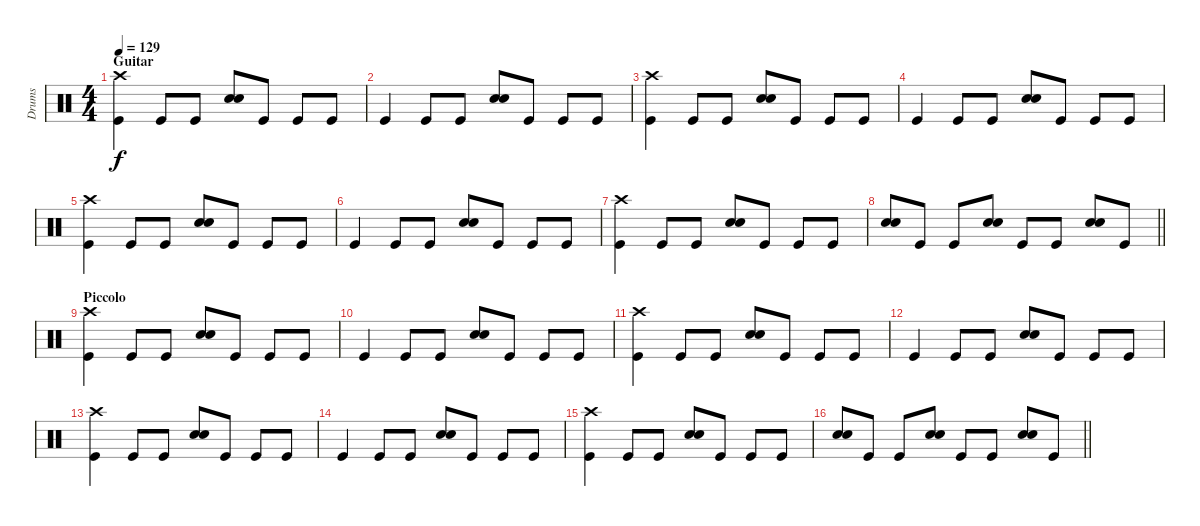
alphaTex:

\track ("Drums" "Drums") {instrument percussion}
\staff {score}
\articulation defaults
\ts (4 4)
\section ("" "Guitar")
\tempo 129
\clef neutral
\ks c
("Crash high (hit)" "Kick (hit)").4{dy f} "Kick (hit)".8 "Kick (hit)".8 ("Snare (hit) 2" "Electric Snare (hit)").8 "Kick (hit)".8 "Kick (hit)".8 "Kick (hit)".8 |
"Kick (hit)".4 "Kick (hit)".8 "Kick (hit)".8 ("Snare (hit) 2" "Electric Snare (hit)").8 "Kick (hit)".8 "Kick (hit)".8 "Kick (hit)".8 |
("Crash high (hit)" "Kick (hit)").4 "Kick (hit)".8 "Kick (hit)".8 ("Snare (hit) 2" "Electric Snare (hit)").8 "Kick (hit)".8 "Kick (hit)".8 "Kick (hit)".8 |
"Kick (hit)".4 "Kick (hit)".8 "Kick (hit)".8 ("Snare (hit) 2" "Electric Snare (hit)").8 "Kick (hit)".8 "Kick (hit)".8 "Kick (hit)".8 |
("Crash high (hit)" "Kick (hit)").4 "Kick (hit)".8 "Kick (hit)".8 ("Snare (hit) 2" "Electric Snare (hit)").8 "Kick (hit)".8 "Kick (hit)".8 "Kick (hit)".8 |
"Kick (hit)".4 "Kick (hit)".8 "Kick (hit)".8 ("Snare (hit) 2" "Electric Snare (hit)").8 "Kick (hit)".8 "Kick (hit)".8 "Kick (hit)".8 |
("Crash high (hit)" "Kick (hit)").4 "Kick (hit)".8 "Kick (hit)".8 ("Snare (hit) 2" "Electric Snare (hit)").8 "Kick (hit)".8 "Kick (hit)".8 "Kick (hit)".8 |
\barLineRight lightlight
("Snare (hit) 2" "Electric Snare (hit)").8 "Kick (hit)".8 "Kick (hit)".8 ("Snare (hit) 2" "Electric Snare (hit)").8 "Kick (hit)".8 "Kick (hit)".8 ("Snare (hit) 2" "Electric Snare (hit)").8 "Kick (hit)".8 |
\section ("" "Piccolo")
("Crash high (hit)" "Kick (hit)").4 "Kick (hit)".8 "Kick (hit)".8 ("Snare (hit) 2" "Electric Snare (hit)").8 "Kick (hit)".8 "Kick (hit)".8 "Kick (hit)".8 |
"Kick (hit)".4 "Kick (hit)".8 "Kick (hit)".8 ("Snare (hit) 2" "Electric Snare (hit)").8 "Kick (hit)".8 "Kick (hit)".8 "Kick (hit)".8 |
("Crash high (hit)" "Kick (hit)").4 "Kick (hit)".8 "Kick (hit)".8 ("Snare (hit) 2" "Electric Snare (hit)").8 "Kick (hit)".8 "Kick (hit)".8 "Kick (hit)".8 |
"Kick (hit)".4 "Kick (hit)".8 "Kick (hit)".8 ("Snare (hit) 2" "Electric Snare (hit)").8 "Kick (hit)".8 "Kick (hit)".8 "Kick (hit)".8 |
("Crash high (hit)" "Kick (hit)").4 "Kick (hit)".8 "Kick (hit)".8 ("Snare (hit) 2" "Electric Snare (hit)").8 "Kick (hit)".8 "Kick (hit)".8 "Kick (hit)".8 |
"Kick (hit)".4 "Kick (hit)".8 "Kick (hit)".8 ("Snare (hit) 2" "Electric Snare (hit)").8 "Kick (hit)".8 "Kick (hit)".8 "Kick (hit)".8 |
("Crash high (hit)" "Kick (hit)").4 "Kick (hit)".8 "Kick (hit)".8 ("Snare (hit) 2" "Electric Snare (hit)").8 "Kick (hit)".8 "Kick (hit)".8 "Kick (hit)".8 |
\barLineRight lightlight
("Snare (hit) 2" "Electric Snare (hit)").8 "Kick (hit)".8 "Kick (hit)".8 ("Snare (hit) 2" "Electric Snare (hit)").8 "Kick (hit)".8 "Kick (hit)".8 ("Snare (hit) 2" "Electric Snare (hit)").8 "Kick (hit)".8
